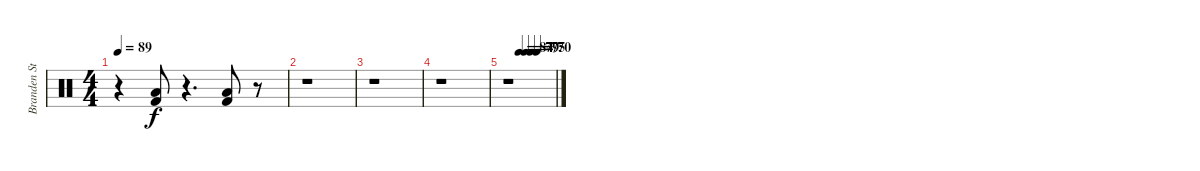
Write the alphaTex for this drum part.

\track ("Branden Steineckert - Drums" "Branden St") {instrument percussion}
\staff {score}
\articulation defaults
\ts (4 4)
\tempo 89
\clef neutral
\ks c
r.4{dy f} ("Low Floor Tom (hit)" "Kick (hit) 2").8 r.4{d} ("Low Floor Tom (hit)" "Kick (hit) 2").8 r.8 |
r.1 |
r.1 |
r.1 |
\tempo (84 0.25)
\tempo (79 0.375)
\tempo (75 0.5)
\tempo (70 0.625)
r.1
